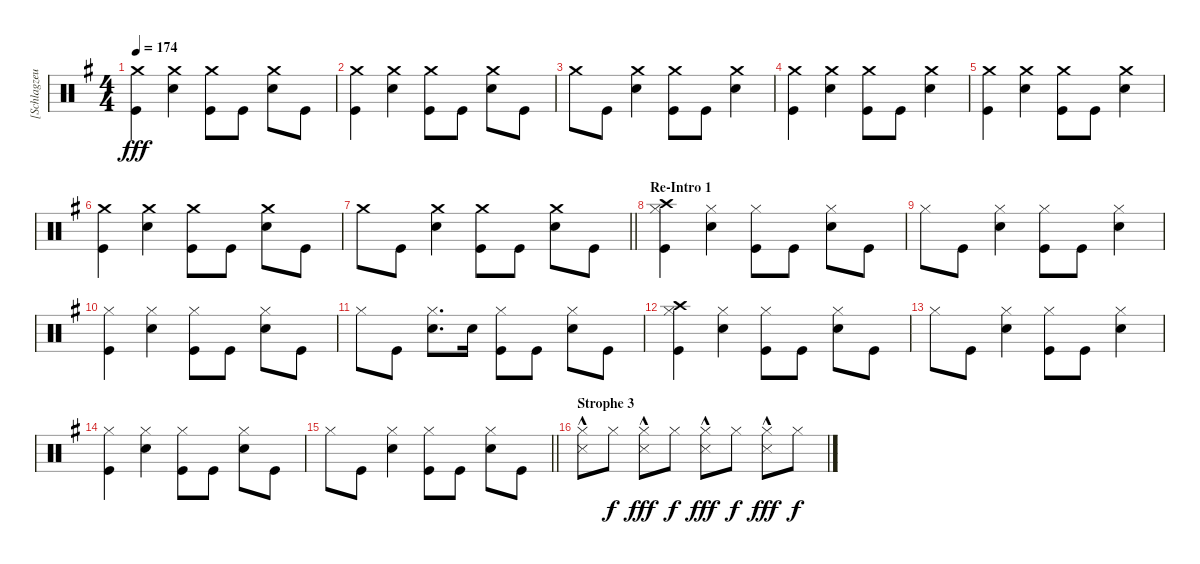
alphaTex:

\track ("[Schlagzeug]" "[Schlagzeu") {instrument percussion}
\staff {score}
\articulation defaults
\ts (4 4)
\tempo 174
\clef neutral
\ks g
("Crash medium (hit)" "Kick (hit)").4{dy fff} ("Crash medium (hit)" "Electric Snare (hit)").4 ("Crash medium (hit)" "Kick (hit)").8 "Kick (hit)".8 ("Crash medium (hit)" "Electric Snare (hit)").8 "Kick (hit)".8 |
("Crash medium (hit)" "Kick (hit)").4 ("Crash medium (hit)" "Electric Snare (hit)").4 ("Crash medium (hit)" "Kick (hit)").8 "Kick (hit)".8 ("Crash medium (hit)" "Electric Snare (hit)").8 "Kick (hit)".8 |
"Crash medium (hit)".8 "Kick (hit)".8 ("Crash medium (hit)" "Electric Snare (hit)").4 ("Crash medium (hit)" "Kick (hit)").8 "Kick (hit)".8 ("Crash medium (hit)" "Electric Snare (hit)").4 |
("Crash medium (hit)" "Kick (hit)").4 ("Crash medium (hit)" "Electric Snare (hit)").4 ("Crash medium (hit)" "Kick (hit)").8 "Kick (hit)".8 ("Crash medium (hit)" "Electric Snare (hit)").4 |
("Crash medium (hit)" "Kick (hit)").4 ("Crash medium (hit)" "Electric Snare (hit)").4 ("Crash medium (hit)" "Kick (hit)").8 "Kick (hit)".8 ("Crash medium (hit)" "Electric Snare (hit)").4 |
("Crash medium (hit)" "Kick (hit)").4 ("Crash medium (hit)" "Electric Snare (hit)").4 ("Crash medium (hit)" "Kick (hit)").8 "Kick (hit)".8 ("Crash medium (hit)" "Electric Snare (hit)").8 "Kick (hit)".8 |
\barLineRight lightlight "Crash medium (hit)".8 "Kick (hit)".8
("Crash medium (hit)" "Electric Snare (hit)").4 ("Crash medium (hit)" "Kick (hit)").8 "Kick (hit)".8 ("Crash medium (hit)" "Electric Snare (hit)").8 "Kick (hit)".8 |
\section ("" "Re-Intro 1")
("Crash high (hit)" "Hi-Hat (closed)" "Kick (hit)").4 ("Hi-Hat (closed)" "Electric Snare (hit)").4 ("Hi-Hat (closed)" "Kick (hit)").8 "Kick (hit)".8 ("Hi-Hat (closed)" "Electric Snare (hit)").8 "Kick (hit)".8 |
"Hi-Hat (closed)".8 "Kick (hit)".8 ("Hi-Hat (closed)" "Electric Snare (hit)").4 ("Hi-Hat (closed)" "Kick (hit)").8 "Kick (hit)".8 ("Hi-Hat (closed)" "Electric Snare (hit)").4 |
("Hi-Hat (closed)" "Kick (hit)").4 ("Hi-Hat (closed)" "Electric Snare (hit)").4 ("Hi-Hat (closed)" "Kick (hit)").8 "Kick (hit)".8 ("Hi-Hat (closed)" "Electric Snare (hit)").8 "Kick (hit)".8 |
"Hi-Hat (closed)".8 "Kick (hit)".8 ("Hi-Hat (closed)" "Electric Snare (hit)").8{d} "Electric Snare (hit)".16 ("Hi-Hat (closed)" "Kick (hit)").8 "Kick (hit)".8 ("Hi-Hat (closed)" "Electric Snare (hit)").8 "Kick (hit)".8 |
("Crash high (hit)" "Hi-Hat (closed)" "Kick (hit)").4 ("Hi-Hat (closed)" "Electric Snare (hit)").4 ("Hi-Hat (closed)" "Kick (hit)").8 "Kick (hit)".8 ("Hi-Hat (closed)" "Electric Snare (hit)").8 "Kick (hit)".8 |
"Hi-Hat (closed)".8 "Kick (hit)".8 ("Hi-Hat (closed)" "Electric Snare (hit)").4 ("Hi-Hat (closed)" "Kick (hit)").8 "Kick (hit)".8 ("Hi-Hat (closed)" "Electric Snare (hit)").4 |
("Hi-Hat (closed)" "Kick (hit)").4 ("Hi-Hat (closed)" "Electric Snare (hit)").4 ("Hi-Hat (closed)" "Kick (hit)").8 "Kick (hit)".8 ("Hi-Hat (closed)" "Electric Snare (hit)").8 "Kick (hit)".8 |
\barLineRight lightlight "Hi-Hat (closed)".8 "Kick (hit)".8
("Hi-Hat (closed)" "Electric Snare (hit)").4 ("Hi-Hat (closed)" "Kick (hit)").8 "Kick (hit)".8 ("Hi-Hat (closed)" "Electric Snare (hit)").8 "Kick (hit)".8 |
\section ("" "Strophe 3")
("Hi-Hat (closed)"{hac} "Snare (side stick) 3").8 "Hi-Hat (closed)".8{dy f} ("Hi-Hat (closed)"{hac} "Snare (side stick) 3").8{dy fff} "Hi-Hat (closed)".8{dy f} ("Hi-Hat (closed)"{hac} "Snare (side stick) 3").8{dy fff} "Hi-Hat (closed)".8{dy f} ("Hi-Hat (closed)"{hac} "Snare (side stick) 3").8{dy fff} "Hi-Hat (closed)".8{dy f}
